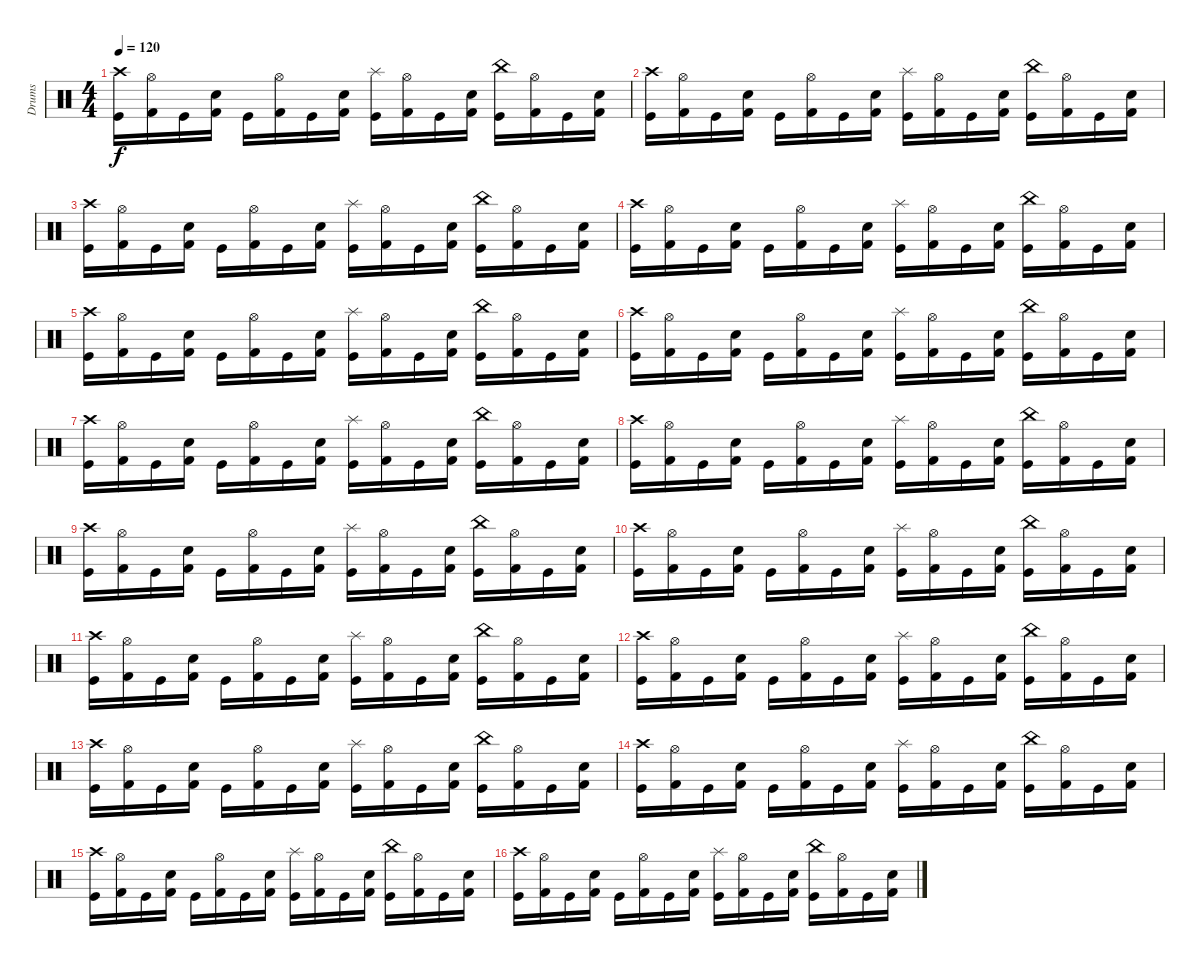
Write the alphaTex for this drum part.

\track ("Drums" "Drums") {instrument percussion}
\staff {score}
\articulation defaults
\ts (4 4)
\tempo 120
\clef neutral
\ks c
("Crash high (hit)" "Kick (hit)").16{dy f} ("Hi-Hat (open)" "Kick (hit) 2").16 "Kick (hit)".16 ("Electric Snare (hit)" "Kick (hit) 2").16 "Kick (hit)".16 ("Hi-Hat (open)" "Kick (hit) 2").16 "Kick (hit)".16 ("Electric Snare (hit)" "Kick (hit) 2").16 ("Splash (hit)" "Kick (hit)").16 ("Hi-Hat (open)" "Kick (hit) 2").16 "Kick (hit)".16 ("Electric Snare (hit)" "Kick (hit) 2").16 ("China (hit)" "Kick (hit)").16 ("Hi-Hat (open)" "Kick (hit) 2").16 "Kick (hit)".16 ("Electric Snare (hit)" "Kick (hit) 2").16 |
("Crash high (hit)" "Kick (hit)").16 ("Hi-Hat (open)" "Kick (hit) 2").16 "Kick (hit)".16 ("Electric Snare (hit)" "Kick (hit) 2").16 "Kick (hit)".16 ("Hi-Hat (open)" "Kick (hit) 2").16 "Kick (hit)".16 ("Electric Snare (hit)" "Kick (hit) 2").16 ("Splash (hit)" "Kick (hit)").16 ("Hi-Hat (open)" "Kick (hit) 2").16 "Kick (hit)".16 ("Electric Snare (hit)" "Kick (hit) 2").16 ("China (hit)" "Kick (hit)").16 ("Hi-Hat (open)" "Kick (hit) 2").16 "Kick (hit)".16 ("Electric Snare (hit)" "Kick (hit) 2").16 |
("Crash high (hit)" "Kick (hit)").16 ("Hi-Hat (open)" "Kick (hit) 2").16 "Kick (hit)".16 ("Electric Snare (hit)" "Kick (hit) 2").16 "Kick (hit)".16 ("Hi-Hat (open)" "Kick (hit) 2").16 "Kick (hit)".16 ("Electric Snare (hit)" "Kick (hit) 2").16 ("Splash (hit)" "Kick (hit)").16 ("Hi-Hat (open)" "Kick (hit) 2").16 "Kick (hit)".16 ("Electric Snare (hit)" "Kick (hit) 2").16 ("China (hit)" "Kick (hit)").16 ("Hi-Hat (open)" "Kick (hit) 2").16 "Kick (hit)".16 ("Electric Snare (hit)" "Kick (hit) 2").16 |
("Crash high (hit)" "Kick (hit)").16 ("Hi-Hat (open)" "Kick (hit) 2").16 "Kick (hit)".16 ("Electric Snare (hit)" "Kick (hit) 2").16 "Kick (hit)".16 ("Hi-Hat (open)" "Kick (hit) 2").16 "Kick (hit)".16 ("Electric Snare (hit)" "Kick (hit) 2").16 ("Splash (hit)" "Kick (hit)").16 ("Hi-Hat (open)" "Kick (hit) 2").16 "Kick (hit)".16 ("Electric Snare (hit)" "Kick (hit) 2").16 ("China (hit)" "Kick (hit)").16 ("Hi-Hat (open)" "Kick (hit) 2").16 "Kick (hit)".16 ("Electric Snare (hit)" "Kick (hit) 2").16 |
("Crash high (hit)" "Kick (hit)").16 ("Hi-Hat (open)" "Kick (hit) 2").16 "Kick (hit)".16 ("Electric Snare (hit)" "Kick (hit) 2").16 "Kick (hit)".16 ("Hi-Hat (open)" "Kick (hit) 2").16 "Kick (hit)".16 ("Electric Snare (hit)" "Kick (hit) 2").16 ("Splash (hit)" "Kick (hit)").16 ("Hi-Hat (open)" "Kick (hit) 2").16 "Kick (hit)".16 ("Electric Snare (hit)" "Kick (hit) 2").16 ("China (hit)" "Kick (hit)").16 ("Hi-Hat (open)" "Kick (hit) 2").16 "Kick (hit)".16 ("Electric Snare (hit)" "Kick (hit) 2").16 |
("Crash high (hit)" "Kick (hit)").16 ("Hi-Hat (open)" "Kick (hit) 2").16 "Kick (hit)".16 ("Electric Snare (hit)" "Kick (hit) 2").16 "Kick (hit)".16 ("Hi-Hat (open)" "Kick (hit) 2").16 "Kick (hit)".16 ("Electric Snare (hit)" "Kick (hit) 2").16 ("Splash (hit)" "Kick (hit)").16 ("Hi-Hat (open)" "Kick (hit) 2").16 "Kick (hit)".16 ("Electric Snare (hit)" "Kick (hit) 2").16 ("China (hit)" "Kick (hit)").16 ("Hi-Hat (open)" "Kick (hit) 2").16 "Kick (hit)".16 ("Electric Snare (hit)" "Kick (hit) 2").16 |
("Crash high (hit)" "Kick (hit)").16 ("Hi-Hat (open)" "Kick (hit) 2").16 "Kick (hit)".16 ("Electric Snare (hit)" "Kick (hit) 2").16 "Kick (hit)".16 ("Hi-Hat (open)" "Kick (hit) 2").16 "Kick (hit)".16 ("Electric Snare (hit)" "Kick (hit) 2").16 ("Splash (hit)" "Kick (hit)").16 ("Hi-Hat (open)" "Kick (hit) 2").16 "Kick (hit)".16 ("Electric Snare (hit)" "Kick (hit) 2").16 ("China (hit)" "Kick (hit)").16 ("Hi-Hat (open)" "Kick (hit) 2").16 "Kick (hit)".16 ("Electric Snare (hit)" "Kick (hit) 2").16 |
("Crash high (hit)" "Kick (hit)").16 ("Hi-Hat (open)" "Kick (hit) 2").16 "Kick (hit)".16 ("Electric Snare (hit)" "Kick (hit) 2").16 "Kick (hit)".16 ("Hi-Hat (open)" "Kick (hit) 2").16 "Kick (hit)".16 ("Electric Snare (hit)" "Kick (hit) 2").16 ("Splash (hit)" "Kick (hit)").16 ("Hi-Hat (open)" "Kick (hit) 2").16 "Kick (hit)".16 ("Electric Snare (hit)" "Kick (hit) 2").16 ("China (hit)" "Kick (hit)").16 ("Hi-Hat (open)" "Kick (hit) 2").16 "Kick (hit)".16 ("Electric Snare (hit)" "Kick (hit) 2").16 |
("Crash high (hit)" "Kick (hit)").16 ("Hi-Hat (open)" "Kick (hit) 2").16 "Kick (hit)".16 ("Electric Snare (hit)" "Kick (hit) 2").16 "Kick (hit)".16 ("Hi-Hat (open)" "Kick (hit) 2").16 "Kick (hit)".16 ("Electric Snare (hit)" "Kick (hit) 2").16 ("Splash (hit)" "Kick (hit)").16 ("Hi-Hat (open)" "Kick (hit) 2").16 "Kick (hit)".16 ("Electric Snare (hit)" "Kick (hit) 2").16 ("China (hit)" "Kick (hit)").16 ("Hi-Hat (open)" "Kick (hit) 2").16 "Kick (hit)".16 ("Electric Snare (hit)" "Kick (hit) 2").16 |
("Crash high (hit)" "Kick (hit)").16 ("Hi-Hat (open)" "Kick (hit) 2").16 "Kick (hit)".16 ("Electric Snare (hit)" "Kick (hit) 2").16 "Kick (hit)".16 ("Hi-Hat (open)" "Kick (hit) 2").16 "Kick (hit)".16 ("Electric Snare (hit)" "Kick (hit) 2").16 ("Splash (hit)" "Kick (hit)").16 ("Hi-Hat (open)" "Kick (hit) 2").16 "Kick (hit)".16 ("Electric Snare (hit)" "Kick (hit) 2").16 ("China (hit)" "Kick (hit)").16 ("Hi-Hat (open)" "Kick (hit) 2").16 "Kick (hit)".16 ("Electric Snare (hit)" "Kick (hit) 2").16 |
("Crash high (hit)" "Kick (hit)").16 ("Hi-Hat (open)" "Kick (hit) 2").16 "Kick (hit)".16 ("Electric Snare (hit)" "Kick (hit) 2").16 "Kick (hit)".16 ("Hi-Hat (open)" "Kick (hit) 2").16 "Kick (hit)".16 ("Electric Snare (hit)" "Kick (hit) 2").16 ("Splash (hit)" "Kick (hit)").16 ("Hi-Hat (open)" "Kick (hit) 2").16 "Kick (hit)".16 ("Electric Snare (hit)" "Kick (hit) 2").16 ("China (hit)" "Kick (hit)").16 ("Hi-Hat (open)" "Kick (hit) 2").16 "Kick (hit)".16 ("Electric Snare (hit)" "Kick (hit) 2").16 |
("Crash high (hit)" "Kick (hit)").16 ("Hi-Hat (open)" "Kick (hit) 2").16 "Kick (hit)".16 ("Electric Snare (hit)" "Kick (hit) 2").16 "Kick (hit)".16 ("Hi-Hat (open)" "Kick (hit) 2").16 "Kick (hit)".16 ("Electric Snare (hit)" "Kick (hit) 2").16 ("Splash (hit)" "Kick (hit)").16 ("Hi-Hat (open)" "Kick (hit) 2").16 "Kick (hit)".16 ("Electric Snare (hit)" "Kick (hit) 2").16 ("China (hit)" "Kick (hit)").16 ("Hi-Hat (open)" "Kick (hit) 2").16 "Kick (hit)".16 ("Electric Snare (hit)" "Kick (hit) 2").16 |
("Crash high (hit)" "Kick (hit)").16 ("Hi-Hat (open)" "Kick (hit) 2").16 "Kick (hit)".16 ("Electric Snare (hit)" "Kick (hit) 2").16 "Kick (hit)".16 ("Hi-Hat (open)" "Kick (hit) 2").16 "Kick (hit)".16 ("Electric Snare (hit)" "Kick (hit) 2").16 ("Splash (hit)" "Kick (hit)").16 ("Hi-Hat (open)" "Kick (hit) 2").16 "Kick (hit)".16 ("Electric Snare (hit)" "Kick (hit) 2").16 ("China (hit)" "Kick (hit)").16 ("Hi-Hat (open)" "Kick (hit) 2").16 "Kick (hit)".16 ("Electric Snare (hit)" "Kick (hit) 2").16 |
("Crash high (hit)" "Kick (hit)").16 ("Hi-Hat (open)" "Kick (hit) 2").16 "Kick (hit)".16 ("Electric Snare (hit)" "Kick (hit) 2").16 "Kick (hit)".16 ("Hi-Hat (open)" "Kick (hit) 2").16 "Kick (hit)".16 ("Electric Snare (hit)" "Kick (hit) 2").16 ("Splash (hit)" "Kick (hit)").16 ("Hi-Hat (open)" "Kick (hit) 2").16 "Kick (hit)".16 ("Electric Snare (hit)" "Kick (hit) 2").16 ("China (hit)" "Kick (hit)").16 ("Hi-Hat (open)" "Kick (hit) 2").16 "Kick (hit)".16 ("Electric Snare (hit)" "Kick (hit) 2").16 |
("Crash high (hit)" "Kick (hit)").16 ("Hi-Hat (open)" "Kick (hit) 2").16 "Kick (hit)".16 ("Electric Snare (hit)" "Kick (hit) 2").16 "Kick (hit)".16 ("Hi-Hat (open)" "Kick (hit) 2").16 "Kick (hit)".16 ("Electric Snare (hit)" "Kick (hit) 2").16 ("Splash (hit)" "Kick (hit)").16 ("Hi-Hat (open)" "Kick (hit) 2").16 "Kick (hit)".16 ("Electric Snare (hit)" "Kick (hit) 2").16 ("China (hit)" "Kick (hit)").16 ("Hi-Hat (open)" "Kick (hit) 2").16 "Kick (hit)".16 ("Electric Snare (hit)" "Kick (hit) 2").16 |
("Crash high (hit)" "Kick (hit)").16 ("Hi-Hat (open)" "Kick (hit) 2").16 "Kick (hit)".16 ("Electric Snare (hit)" "Kick (hit) 2").16 "Kick (hit)".16 ("Hi-Hat (open)" "Kick (hit) 2").16 "Kick (hit)".16 ("Electric Snare (hit)" "Kick (hit) 2").16 ("Splash (hit)" "Kick (hit)").16 ("Hi-Hat (open)" "Kick (hit) 2").16 "Kick (hit)".16 ("Electric Snare (hit)" "Kick (hit) 2").16 ("China (hit)" "Kick (hit)").16 ("Hi-Hat (open)" "Kick (hit) 2").16 "Kick (hit)".16 ("Electric Snare (hit)" "Kick (hit) 2").16
